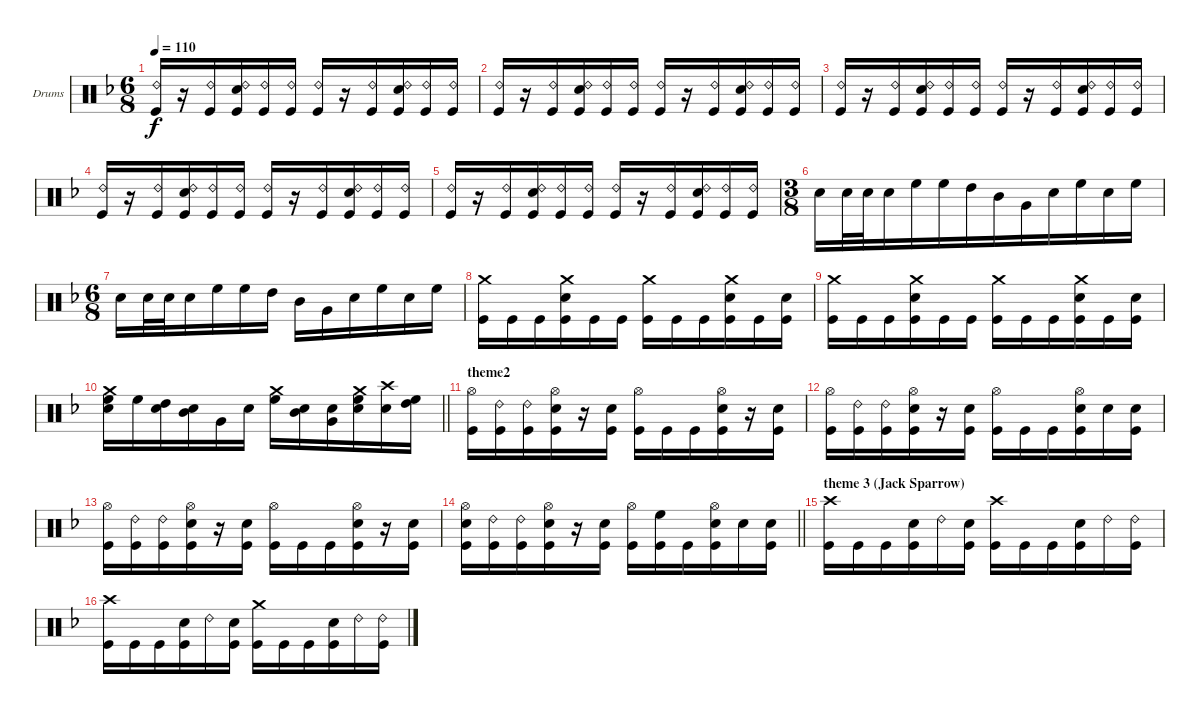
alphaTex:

\bracketExtendMode groupsimilarinstruments
\firstSystemTrackNameOrientation horizontal
\otherSystemsTrackNameOrientation horizontal
\track ("Drumkit" "Drums") {instrument percussion}
\staff {score}
\articulation defaults
\ts (6 8)
\tempo 110
\clef neutral
\ks f
("Kick (hit)" "Ride (bell) 2").16{dy f} r.16 ("Kick (hit)" "Ride (bell) 2").16 ("Kick (hit)" "Snare (hit) 2" "Ride (bell) 2").16 ("Kick (hit)" "Ride (bell) 2").16 ("Kick (hit)" "Ride (bell) 2").16 ("Kick (hit)" "Ride (bell) 2").16 r.16 ("Kick (hit)" "Ride (bell) 2").16 ("Kick (hit)" "Snare (hit) 2" "Ride (bell) 2").16 ("Kick (hit)" "Ride (bell) 2").16 ("Kick (hit)" "Ride (bell) 2").16 |
("Kick (hit)" "Ride (bell) 2").16 r.16 ("Kick (hit)" "Ride (bell) 2").16 ("Kick (hit)" "Snare (hit) 2" "Ride (bell) 2").16 ("Kick (hit)" "Ride (bell) 2").16 ("Kick (hit)" "Ride (bell) 2").16 ("Kick (hit)" "Ride (bell) 2").16 r.16 ("Kick (hit)" "Ride (bell) 2").16 ("Kick (hit)" "Snare (hit) 2" "Ride (bell) 2").16 ("Kick (hit)" "Ride (bell) 2").16 ("Kick (hit)" "Ride (bell) 2").16 |
("Kick (hit)" "Ride (bell) 2").16 r.16 ("Kick (hit)" "Ride (bell) 2").16 ("Kick (hit)" "Snare (hit) 2" "Ride (bell) 2").16 ("Kick (hit)" "Ride (bell) 2").16 ("Kick (hit)" "Ride (bell) 2").16 ("Kick (hit)" "Ride (bell) 2").16 r.16 ("Kick (hit)" "Ride (bell) 2").16 ("Kick (hit)" "Snare (hit) 2" "Ride (bell) 2").16 ("Kick (hit)" "Ride (bell) 2").16 ("Kick (hit)" "Ride (bell) 2").16 |
("Kick (hit)" "Ride (bell) 2").16 r.16 ("Kick (hit)" "Ride (bell) 2").16 ("Kick (hit)" "Snare (hit) 2" "Ride (bell) 2").16 ("Kick (hit)" "Ride (bell) 2").16 ("Kick (hit)" "Ride (bell) 2").16 ("Kick (hit)" "Ride (bell) 2").16 r.16 ("Kick (hit)" "Ride (bell) 2").16 ("Kick (hit)" "Snare (hit) 2" "Ride (bell) 2").16 ("Kick (hit)" "Ride (bell) 2").16 ("Kick (hit)" "Ride (bell) 2").16 |
("Kick (hit)" "Ride (bell) 2").16 r.16 ("Kick (hit)" "Ride (bell) 2").16 ("Kick (hit)" "Snare (hit) 2" "Ride (bell) 2").16 ("Kick (hit)" "Ride (bell) 2").16 ("Kick (hit)" "Ride (bell) 2").16 ("Kick (hit)" "Ride (bell) 2").16 r.16 ("Kick (hit)" "Ride (bell) 2").16 ("Kick (hit)" "Snare (hit) 2" "Ride (bell) 2").16 ("Kick (hit)" "Ride (bell) 2").16 ("Kick (hit)" "Ride (bell) 2").16 |
\ts (3 8)
"Snare (hit) 2".16 "Snare (hit) 2".32 "Snare (hit) 2".32 "Snare (hit) 2".16 "High Floor Tom (hit)".16 "High Floor Tom (hit)".16 "High Tom (hit)".16 "Mid Tom (hit)".16 "Very Low Tom (hit)".16 "Snare (hit) 2".16 "High Floor Tom (hit)".16 "Snare (hit) 2".16 "High Floor Tom (hit)".16 |
\ts (6 8)
"Snare (hit) 2".16 "Snare (hit) 2".32 "Snare (hit) 2".32 "Snare (hit) 2".16 "High Floor Tom (hit)".16 "High Floor Tom (hit)".16 "High Tom (hit)".16 "Mid Tom (hit)".16 "Very Low Tom (hit)".16 "Snare (hit) 2".16 "High Floor Tom (hit)".16 "Snare (hit) 2".16 "High Floor Tom (hit)".16 |
("Kick (hit)" "Crash medium (hit)").16 "Kick (hit)".16 "Kick (hit)".16 ("Kick (hit)" "Snare (hit) 2" "Crash medium (hit)").16 "Kick (hit)".16 "Kick (hit)".16 ("Kick (hit)" "Crash medium (hit)").16 "Kick (hit)".16 "Kick (hit)".16 ("Kick (hit)" "Snare (hit) 2" "Crash medium (hit)").16 "Kick (hit)".16 ("Kick (hit)" "Snare (hit) 2").16 |
("Kick (hit)" "Crash medium (hit)").16 "Kick (hit)".16 "Kick (hit)".16 ("Kick (hit)" "Snare (hit) 2" "Crash medium (hit)").16 "Kick (hit)".16 "Kick (hit)".16 ("Kick (hit)" "Crash medium (hit)").16 "Kick (hit)".16 "Kick (hit)".16 ("Kick (hit)" "Snare (hit) 2" "Crash medium (hit)").16 "Kick (hit)".16 ("Kick (hit)" "Snare (hit) 2").16 |
\barLineRight lightlight
("High Floor Tom (hit)" "Snare (hit) 2" "Crash medium (hit)").16 "High Floor Tom (hit)".16 ("High Tom (hit)" "Snare (hit) 2").16 ("Mid Tom (hit)" "Snare (hit) 2").16 "Very Low Tom (hit)".16 "Snare (hit) 2".16 ("High Floor Tom (hit)" "Crash medium (hit)").16 ("Mid Tom (hit)" "Snare (hit) 2").16 ("Very Low Tom (hit)" "Snare (hit) 2").16 ("Snare (hit) 2" "High Floor Tom (hit)" "Crash medium (hit)").16 ("Snare (hit) 2" "Crash high (hit)").16 ("High Floor Tom (hit)" "High Tom (hit)").16 |
\section ("" "theme2")
("Hi-Hat (open)" "Kick (hit)").16 ("Ride (bell) 2" "Kick (hit)").16 ("Ride (bell) 2" "Kick (hit)").16 ("Hi-Hat (open)" "Snare (hit) 2" "Kick (hit)").16 r.16 ("Snare (hit) 2" "Kick (hit)").16 ("Hi-Hat (open)" "Kick (hit)").16 "Kick (hit)".16 "Kick (hit)".16 ("Hi-Hat (open)" "Snare (hit) 2" "Kick (hit)").16 r.16 ("Snare (hit) 2" "Kick (hit)").16 |
("Hi-Hat (open)" "Kick (hit)").16 ("Ride (bell) 2" "Kick (hit)").16 ("Ride (bell) 2" "Kick (hit)").16 ("Hi-Hat (open)" "Snare (hit) 2" "Kick (hit)").16 r.16 ("Snare (hit) 2" "Kick (hit)").16 ("Hi-Hat (open)" "Kick (hit)").16 "Kick (hit)".16 "Kick (hit)".16 ("Hi-Hat (open)" "Snare (hit) 2" "Kick (hit)").16 "Snare (hit) 2".16 ("Snare (hit) 2" "Kick (hit)").16 |
("Hi-Hat (open)" "Kick (hit)").16 ("Ride (bell) 2" "Kick (hit)").16 ("Ride (bell) 2" "Kick (hit)").16 ("Hi-Hat (open)" "Snare (hit) 2" "Kick (hit)").16 r.16 ("Snare (hit) 2" "Kick (hit)").16 ("Hi-Hat (open)" "Kick (hit)").16 "Kick (hit)".16 "Kick (hit)".16 ("Hi-Hat (open)" "Snare (hit) 2" "Kick (hit)").16 r.16 ("Snare (hit) 2" "Kick (hit)").16 |
\barLineRight lightlight
("Hi-Hat (open)" "Snare (hit) 2" "Kick (hit)").16 ("Ride (bell) 2" "Kick (hit)").16 ("Ride (bell) 2" "Kick (hit)").16 ("Hi-Hat (open)" "Snare (hit) 2" "Kick (hit)").16 r.16 ("Snare (hit) 2" "Kick (hit)").16 ("Hi-Hat (open)" "Kick (hit)").16 ("High Floor Tom (hit)" "Kick (hit)").16 "Kick (hit)".16 ("Hi-Hat (open)" "Snare (hit) 2" "Kick (hit)").16 "Snare (hit) 2".16 ("Snare (hit) 2" "Kick (hit)").16 |
\section ("" "theme 3 (Jack Sparrow)")
("Crash high (hit)" "Kick (hit)").16 "Kick (hit)".16 "Kick (hit)".16 ("Snare (hit) 2" "Kick (hit)").16 "Ride (bell) 2".16 ("Snare (hit) 2" "Kick (hit)").16 ("Crash high (hit)" "Kick (hit)").16 "Kick (hit)".16 "Kick (hit)".16 ("Snare (hit) 2" "Kick (hit)").16 "Ride (bell) 2".16 ("Ride (bell) 2" "Kick (hit)").16 |
("Crash high (hit)" "Kick (hit)").16 "Kick (hit)".16 "Kick (hit)".16 ("Snare (hit) 2" "Kick (hit)").16 "Ride (bell) 2".16 ("Snare (hit) 2" "Kick (hit)").16 ("Crash medium (hit)" "Kick (hit)").16 "Kick (hit)".16 "Kick (hit)".16 ("Snare (hit) 2" "Kick (hit)").16 "Ride (bell) 2".16 ("Ride (bell) 2" "Kick (hit)").16
